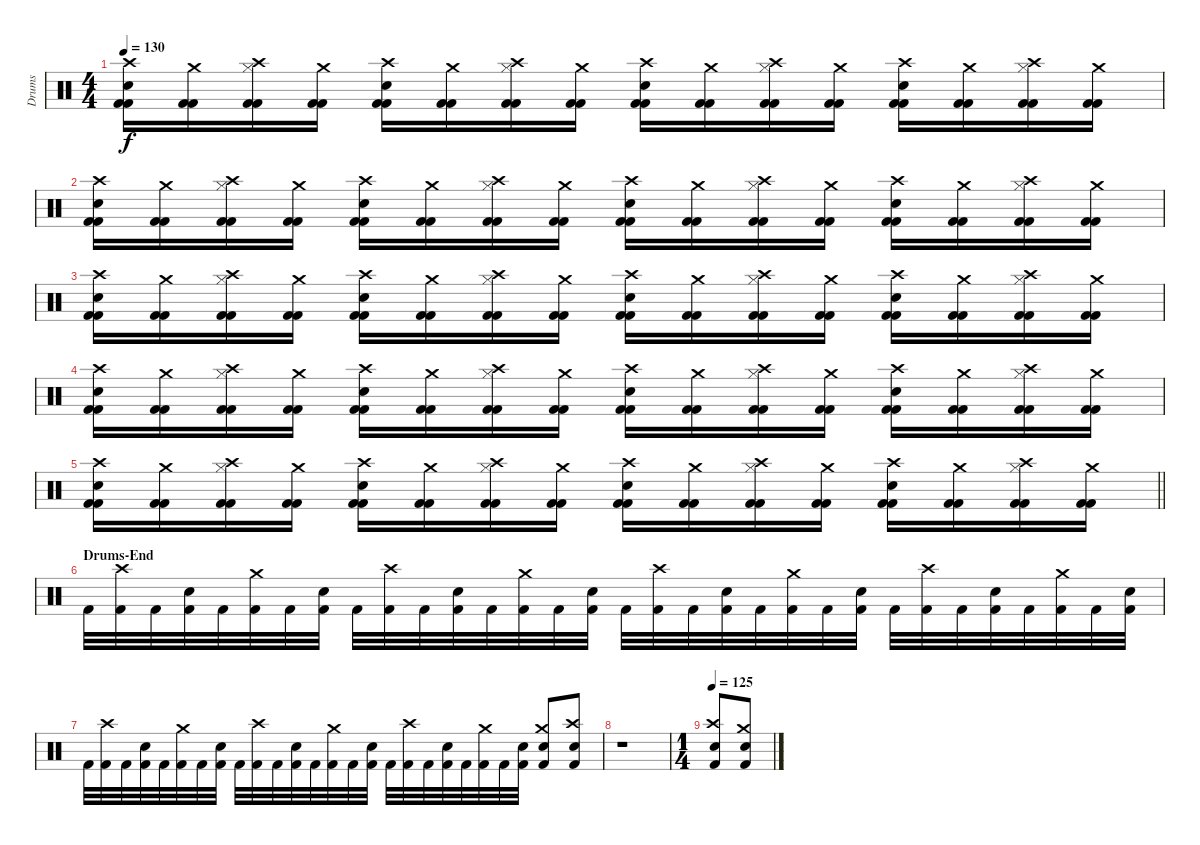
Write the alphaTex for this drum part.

\track ("Drums" "Drums") {instrument percussion}
\staff
\articulation defaults
\ts (4 4)
\tempo 130
\clef neutral
\ks c
("Kick (hit) 2" "Crash high (hit)" "Electric Snare (hit)" "Kick (hit) 2").16{dy f} ("Kick (hit) 2" "Crash medium (hit)" "Kick (hit) 2").16 ("Kick (hit) 2" "Crash high (hit)" "Hi-Hat (closed)" "Kick (hit) 2").16 ("Kick (hit) 2" "Crash medium (hit)" "Kick (hit) 2").16 ("Kick (hit) 2" "Crash high (hit)" "Electric Snare (hit)" "Kick (hit) 2").16 ("Kick (hit) 2" "Crash medium (hit)" "Kick (hit) 2").16 ("Kick (hit) 2" "Crash high (hit)" "Hi-Hat (closed)" "Kick (hit) 2").16 ("Kick (hit) 2" "Crash medium (hit)" "Kick (hit) 2").16 ("Kick (hit) 2" "Crash high (hit)" "Electric Snare (hit)" "Kick (hit) 2").16 ("Kick (hit) 2" "Crash medium (hit)" "Kick (hit) 2").16 ("Kick (hit) 2" "Crash high (hit)" "Hi-Hat (closed)" "Kick (hit) 2").16 ("Kick (hit) 2" "Crash medium (hit)" "Kick (hit) 2").16 ("Kick (hit) 2" "Crash high (hit)" "Electric Snare (hit)" "Kick (hit) 2").16 ("Kick (hit) 2" "Crash medium (hit)" "Kick (hit) 2").16 ("Kick (hit) 2" "Crash high (hit)" "Hi-Hat (closed)" "Kick (hit) 2").16 ("Kick (hit) 2" "Crash medium (hit)" "Kick (hit) 2").16 |
("Kick (hit) 2" "Crash high (hit)" "Electric Snare (hit)" "Kick (hit) 2").16 ("Kick (hit) 2" "Crash medium (hit)" "Kick (hit) 2").16 ("Kick (hit) 2" "Crash high (hit)" "Hi-Hat (closed)" "Kick (hit) 2").16 ("Kick (hit) 2" "Crash medium (hit)" "Kick (hit) 2").16 ("Kick (hit) 2" "Crash high (hit)" "Electric Snare (hit)" "Kick (hit) 2").16 ("Kick (hit) 2" "Crash medium (hit)" "Kick (hit) 2").16 ("Kick (hit) 2" "Crash high (hit)" "Hi-Hat (closed)" "Kick (hit) 2").16 ("Kick (hit) 2" "Crash medium (hit)" "Kick (hit) 2").16 ("Kick (hit) 2" "Crash high (hit)" "Electric Snare (hit)" "Kick (hit) 2").16 ("Kick (hit) 2" "Crash medium (hit)" "Kick (hit) 2").16 ("Kick (hit) 2" "Crash high (hit)" "Hi-Hat (closed)" "Kick (hit) 2").16 ("Kick (hit) 2" "Crash medium (hit)" "Kick (hit) 2").16 ("Kick (hit) 2" "Crash high (hit)" "Electric Snare (hit)" "Kick (hit) 2").16 ("Kick (hit) 2" "Crash medium (hit)" "Kick (hit) 2").16 ("Kick (hit) 2" "Crash high (hit)" "Hi-Hat (closed)" "Kick (hit) 2").16 ("Kick (hit) 2" "Crash medium (hit)" "Kick (hit) 2").16 |
("Kick (hit) 2" "Crash high (hit)" "Electric Snare (hit)" "Kick (hit) 2").16 ("Kick (hit) 2" "Crash medium (hit)" "Kick (hit) 2").16 ("Kick (hit) 2" "Crash high (hit)" "Hi-Hat (closed)" "Kick (hit) 2").16 ("Kick (hit) 2" "Crash medium (hit)" "Kick (hit) 2").16 ("Kick (hit) 2" "Crash high (hit)" "Electric Snare (hit)" "Kick (hit) 2").16 ("Kick (hit) 2" "Crash medium (hit)" "Kick (hit) 2").16 ("Kick (hit) 2" "Crash high (hit)" "Hi-Hat (closed)" "Kick (hit) 2").16 ("Kick (hit) 2" "Crash medium (hit)" "Kick (hit) 2").16 ("Kick (hit) 2" "Crash high (hit)" "Electric Snare (hit)" "Kick (hit) 2").16 ("Kick (hit) 2" "Crash medium (hit)" "Kick (hit) 2").16 ("Kick (hit) 2" "Crash high (hit)" "Hi-Hat (closed)" "Kick (hit) 2").16 ("Kick (hit) 2" "Crash medium (hit)" "Kick (hit) 2").16 ("Kick (hit) 2" "Crash high (hit)" "Electric Snare (hit)" "Kick (hit) 2").16 ("Kick (hit) 2" "Crash medium (hit)" "Kick (hit) 2").16 ("Kick (hit) 2" "Crash high (hit)" "Hi-Hat (closed)" "Kick (hit) 2").16 ("Kick (hit) 2" "Crash medium (hit)" "Kick (hit) 2").16 |
("Kick (hit) 2" "Crash high (hit)" "Electric Snare (hit)" "Kick (hit) 2").16 ("Kick (hit) 2" "Crash medium (hit)" "Kick (hit) 2").16 ("Kick (hit) 2" "Crash high (hit)" "Hi-Hat (closed)" "Kick (hit) 2").16 ("Kick (hit) 2" "Crash medium (hit)" "Kick (hit) 2").16 ("Kick (hit) 2" "Crash high (hit)" "Electric Snare (hit)" "Kick (hit) 2").16 ("Kick (hit) 2" "Crash medium (hit)" "Kick (hit) 2").16 ("Kick (hit) 2" "Crash high (hit)" "Hi-Hat (closed)" "Kick (hit) 2").16 ("Kick (hit) 2" "Crash medium (hit)" "Kick (hit) 2").16 ("Kick (hit) 2" "Crash high (hit)" "Electric Snare (hit)" "Kick (hit) 2").16 ("Kick (hit) 2" "Crash medium (hit)" "Kick (hit) 2").16 ("Kick (hit) 2" "Crash high (hit)" "Hi-Hat (closed)" "Kick (hit) 2").16 ("Kick (hit) 2" "Crash medium (hit)" "Kick (hit) 2").16 ("Kick (hit) 2" "Crash high (hit)" "Electric Snare (hit)" "Kick (hit) 2").16 ("Kick (hit) 2" "Crash medium (hit)" "Kick (hit) 2").16 ("Kick (hit) 2" "Crash high (hit)" "Hi-Hat (closed)" "Kick (hit) 2").16 ("Kick (hit) 2" "Crash medium (hit)" "Kick (hit) 2").16 |
\barLineRight lightlight
("Kick (hit) 2" "Crash high (hit)" "Electric Snare (hit)" "Kick (hit) 2").16 ("Kick (hit) 2" "Crash medium (hit)" "Kick (hit) 2").16 ("Kick (hit) 2" "Crash high (hit)" "Hi-Hat (closed)" "Kick (hit) 2").16 ("Kick (hit) 2" "Crash medium (hit)" "Kick (hit) 2").16 ("Kick (hit) 2" "Crash high (hit)" "Electric Snare (hit)" "Kick (hit) 2").16 ("Kick (hit) 2" "Crash medium (hit)" "Kick (hit) 2").16 ("Kick (hit) 2" "Crash high (hit)" "Hi-Hat (closed)" "Kick (hit) 2").16 ("Kick (hit) 2" "Crash medium (hit)" "Kick (hit) 2").16 ("Kick (hit) 2" "Crash high (hit)" "Electric Snare (hit)" "Kick (hit) 2").16 ("Kick (hit) 2" "Crash medium (hit)" "Kick (hit) 2").16 ("Kick (hit) 2" "Crash high (hit)" "Hi-Hat (closed)" "Kick (hit) 2").16 ("Kick (hit) 2" "Crash medium (hit)" "Kick (hit) 2").16 ("Kick (hit) 2" "Crash high (hit)" "Electric Snare (hit)" "Kick (hit) 2").16 ("Kick (hit) 2" "Crash medium (hit)" "Kick (hit) 2").16 ("Kick (hit) 2" "Crash high (hit)" "Hi-Hat (closed)" "Kick (hit) 2").16 ("Kick (hit) 2" "Crash medium (hit)" "Kick (hit) 2").16 |
\section ("" "Drums-End")
"Kick (hit) 2".32 ("Crash high (hit)" "Kick (hit) 2").32 "Kick (hit) 2".32 ("Snare (hit) 2" "Kick (hit) 2").32 "Kick (hit) 2".32 ("Crash medium (hit)" "Kick (hit) 2").32 "Kick (hit) 2".32 ("Snare (hit) 2" "Kick (hit) 2").32 "Kick (hit) 2".32 ("Crash high (hit)" "Kick (hit) 2").32 "Kick (hit) 2".32 ("Snare (hit) 2" "Kick (hit) 2").32 "Kick (hit) 2".32 ("Crash medium (hit)" "Kick (hit) 2").32 "Kick (hit) 2".32 ("Snare (hit) 2" "Kick (hit) 2").32 "Kick (hit) 2".32 ("Crash high (hit)" "Kick (hit) 2").32 "Kick (hit) 2".32 ("Snare (hit) 2" "Kick (hit) 2").32 "Kick (hit) 2".32 ("Crash medium (hit)" "Kick (hit) 2").32 "Kick (hit) 2".32 ("Snare (hit) 2" "Kick (hit) 2").32 "Kick (hit) 2".32 ("Crash high (hit)" "Kick (hit) 2").32 "Kick (hit) 2".32 ("Snare (hit) 2" "Kick (hit) 2").32 "Kick (hit) 2".32 ("Crash medium (hit)" "Kick (hit) 2").32 "Kick (hit) 2".32 ("Snare (hit) 2" "Kick (hit) 2").32 |
"Kick (hit) 2".32 ("Crash high (hit)" "Kick (hit) 2").32 "Kick (hit) 2".32 ("Snare (hit) 2" "Kick (hit) 2").32 "Kick (hit) 2".32 ("Crash medium (hit)" "Kick (hit) 2").32 "Kick (hit) 2".32 ("Snare (hit) 2" "Kick (hit) 2").32 "Kick (hit) 2".32 ("Crash high (hit)" "Kick (hit) 2").32 "Kick (hit) 2".32 ("Snare (hit) 2" "Kick (hit) 2").32 "Kick (hit) 2".32 ("Crash medium (hit)" "Kick (hit) 2").32 "Kick (hit) 2".32 ("Snare (hit) 2" "Kick (hit) 2").32 "Kick (hit) 2".32 ("Crash high (hit)" "Kick (hit) 2").32 "Kick (hit) 2".32 ("Snare (hit) 2" "Kick (hit) 2").32 "Kick (hit) 2".32 ("Crash medium (hit)" "Kick (hit) 2").32 "Kick (hit) 2".32 ("Snare (hit) 2" "Kick (hit) 2").32 ("Crash medium (hit)" "Snare (hit) 2" "Kick (hit) 2").8 ("Crash high (hit)" "Snare (hit) 2" "Kick (hit) 2").8 |
r.1 |
\ts (1 4)
\tempo 125
("Crash high (hit)" "Snare (hit) 2" "Kick (hit) 2").8 ("Crash medium (hit)" "Snare (hit) 2" "Kick (hit) 2").8
